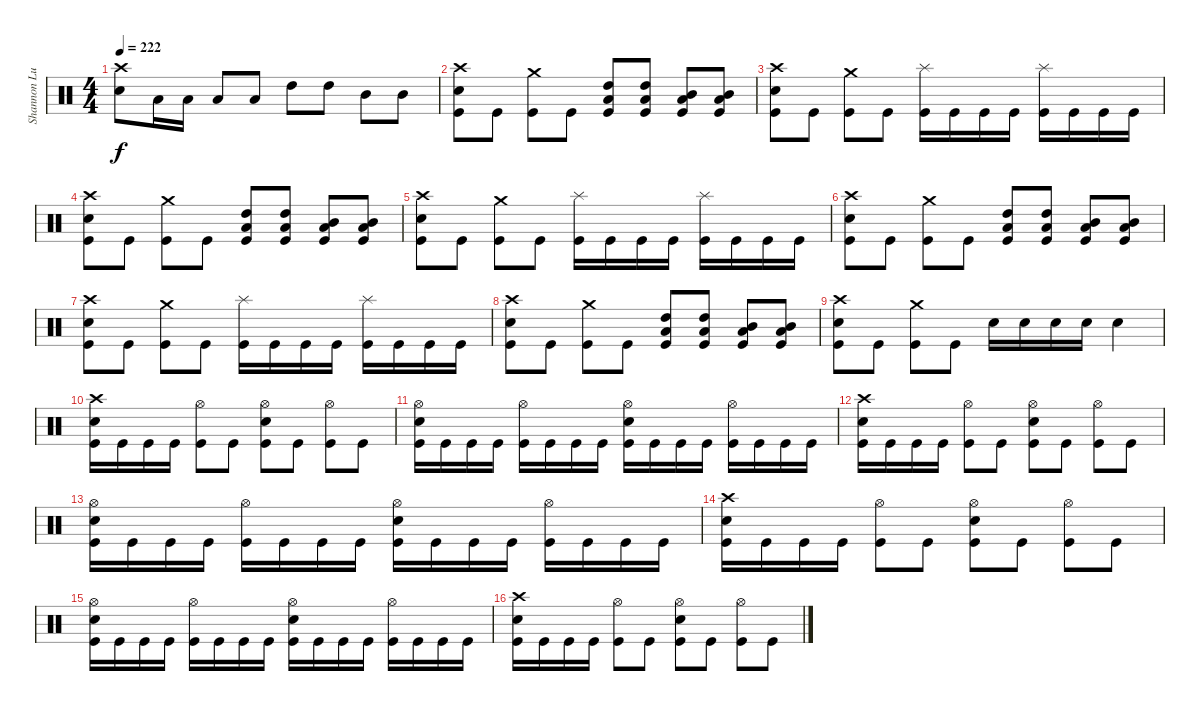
\track ("Shannon Lucas" "Shannon Lu") {instrument percussion}
\staff {score}
\articulation defaults
\ts (4 4)
\tempo 222
\clef neutral
\ks c
("Crash high (hit)" "Snare (hit) 2").8{dy f} "Low Tom (hit)".16 "Low Tom (hit)".16 "Low Tom (hit)".8 "Low Tom (hit)".8 "High Tom (hit)".8 "High Tom (hit)".8 "Mid Tom (hit)".8 "Mid Tom (hit)".8 |
("Crash high (hit)" "Snare (hit) 2" "Kick (hit)").8 "Kick (hit)".8 ("Crash medium (hit)" "Kick (hit)").8 "Kick (hit)".8 ("Low Tom (hit)" "High Tom (hit)" "Kick (hit)").8 ("Low Tom (hit)" "High Tom (hit)" "Kick (hit)").8 ("Low Tom (hit)" "Mid Tom (hit)" "Kick (hit)").8 ("Low Tom (hit)" "Mid Tom (hit)" "Kick (hit)").8 |
("Crash high (hit)" "Snare (hit) 2" "Kick (hit)").8 "Kick (hit)".8 ("Crash medium (hit)" "Kick (hit)").8 "Kick (hit)".8 ("Splash (hit)" "Kick (hit)").16 "Kick (hit)".16 "Kick (hit)".16 "Kick (hit)".16 ("Splash (hit)" "Kick (hit)").16 "Kick (hit)".16 "Kick (hit)".16 "Kick (hit)".16 |
("Crash high (hit)" "Snare (hit) 2" "Kick (hit)").8 "Kick (hit)".8 ("Crash medium (hit)" "Kick (hit)").8 "Kick (hit)".8 ("Low Tom (hit)" "High Tom (hit)" "Kick (hit)").8 ("Low Tom (hit)" "High Tom (hit)" "Kick (hit)").8 ("Low Tom (hit)" "Mid Tom (hit)" "Kick (hit)").8 ("Low Tom (hit)" "Mid Tom (hit)" "Kick (hit)").8 |
("Crash high (hit)" "Snare (hit) 2" "Kick (hit)").8 "Kick (hit)".8 ("Crash medium (hit)" "Kick (hit)").8 "Kick (hit)".8 ("Splash (hit)" "Kick (hit)").16 "Kick (hit)".16 "Kick (hit)".16 "Kick (hit)".16 ("Splash (hit)" "Kick (hit)").16 "Kick (hit)".16 "Kick (hit)".16 "Kick (hit)".16 |
("Crash high (hit)" "Snare (hit) 2" "Kick (hit)").8 "Kick (hit)".8 ("Crash medium (hit)" "Kick (hit)").8 "Kick (hit)".8 ("Low Tom (hit)" "High Tom (hit)" "Kick (hit)").8 ("Low Tom (hit)" "High Tom (hit)" "Kick (hit)").8 ("Low Tom (hit)" "Mid Tom (hit)" "Kick (hit)").8 ("Low Tom (hit)" "Mid Tom (hit)" "Kick (hit)").8 |
("Crash high (hit)" "Snare (hit) 2" "Kick (hit)").8 "Kick (hit)".8 ("Crash medium (hit)" "Kick (hit)").8 "Kick (hit)".8 ("Splash (hit)" "Kick (hit)").16 "Kick (hit)".16 "Kick (hit)".16 "Kick (hit)".16 ("Splash (hit)" "Kick (hit)").16 "Kick (hit)".16 "Kick (hit)".16 "Kick (hit)".16 |
("Crash high (hit)" "Snare (hit) 2" "Kick (hit)").8 "Kick (hit)".8 ("Crash medium (hit)" "Kick (hit)").8 "Kick (hit)".8 ("Low Tom (hit)" "High Tom (hit)" "Kick (hit)").8 ("Low Tom (hit)" "High Tom (hit)" "Kick (hit)").8 ("Low Tom (hit)" "Mid Tom (hit)" "Kick (hit)").8 ("Low Tom (hit)" "Mid Tom (hit)" "Kick (hit)").8 |
("Crash high (hit)" "Snare (hit) 2" "Kick (hit)").8 "Kick (hit)".8 ("Crash medium (hit)" "Kick (hit)").8 "Kick (hit)".8 "Snare (hit) 2".16 "Snare (hit) 2".16 "Snare (hit) 2".16 "Snare (hit) 2".16 "Snare (hit) 2".4 |
("Crash high (hit)" "Snare (hit) 2" "Kick (hit)").16 "Kick (hit)".16 "Kick (hit)".16 "Kick (hit)".16 ("Hi-Hat (open)" "Kick (hit)").8 "Kick (hit)".8 ("Hi-Hat (open)" "Snare (hit) 2" "Kick (hit)").8 "Kick (hit)".8 ("Hi-Hat (open)" "Kick (hit)").8 "Kick (hit)".8 |
("Hi-Hat (open)" "Snare (hit) 2" "Kick (hit)").16 "Kick (hit)".16 "Kick (hit)".16 "Kick (hit)".16 ("Hi-Hat (open)" "Kick (hit)").16 "Kick (hit)".16 "Kick (hit)".16 "Kick (hit)".16 ("Hi-Hat (open)" "Snare (hit) 2" "Kick (hit)").16 "Kick (hit)".16 "Kick (hit)".16 "Kick (hit)".16 ("Hi-Hat (open)" "Kick (hit)").16 "Kick (hit)".16 "Kick (hit)".16 "Kick (hit)".16 |
("Crash high (hit)" "Snare (hit) 2" "Kick (hit)").16 "Kick (hit)".16 "Kick (hit)".16 "Kick (hit)".16 ("Hi-Hat (open)" "Kick (hit)").8 "Kick (hit)".8 ("Hi-Hat (open)" "Snare (hit) 2" "Kick (hit)").8 "Kick (hit)".8 ("Hi-Hat (open)" "Kick (hit)").8 "Kick (hit)".8 |
("Hi-Hat (open)" "Snare (hit) 2" "Kick (hit)").16 "Kick (hit)".16 "Kick (hit)".16 "Kick (hit)".16 ("Hi-Hat (open)" "Kick (hit)").16 "Kick (hit)".16 "Kick (hit)".16 "Kick (hit)".16 ("Hi-Hat (open)" "Snare (hit) 2" "Kick (hit)").16 "Kick (hit)".16 "Kick (hit)".16 "Kick (hit)".16 ("Hi-Hat (open)" "Kick (hit)").16 "Kick (hit)".16 "Kick (hit)".16 "Kick (hit)".16 |
("Crash high (hit)" "Snare (hit) 2" "Kick (hit)").16 "Kick (hit)".16 "Kick (hit)".16 "Kick (hit)".16 ("Hi-Hat (open)" "Kick (hit)").8 "Kick (hit)".8 ("Hi-Hat (open)" "Snare (hit) 2" "Kick (hit)").8 "Kick (hit)".8 ("Hi-Hat (open)" "Kick (hit)").8 "Kick (hit)".8 |
("Hi-Hat (open)" "Snare (hit) 2" "Kick (hit)").16 "Kick (hit)".16 "Kick (hit)".16 "Kick (hit)".16 ("Hi-Hat (open)" "Kick (hit)").16 "Kick (hit)".16 "Kick (hit)".16 "Kick (hit)".16 ("Hi-Hat (open)" "Snare (hit) 2" "Kick (hit)").16 "Kick (hit)".16 "Kick (hit)".16 "Kick (hit)".16 ("Hi-Hat (open)" "Kick (hit)").16 "Kick (hit)".16 "Kick (hit)".16 "Kick (hit)".16 |
("Crash high (hit)" "Snare (hit) 2" "Kick (hit)").16 "Kick (hit)".16 "Kick (hit)".16 "Kick (hit)".16 ("Hi-Hat (open)" "Kick (hit)").8 "Kick (hit)".8 ("Hi-Hat (open)" "Snare (hit) 2" "Kick (hit)").8 "Kick (hit)".8 ("Hi-Hat (open)" "Kick (hit)").8 "Kick (hit)".8
